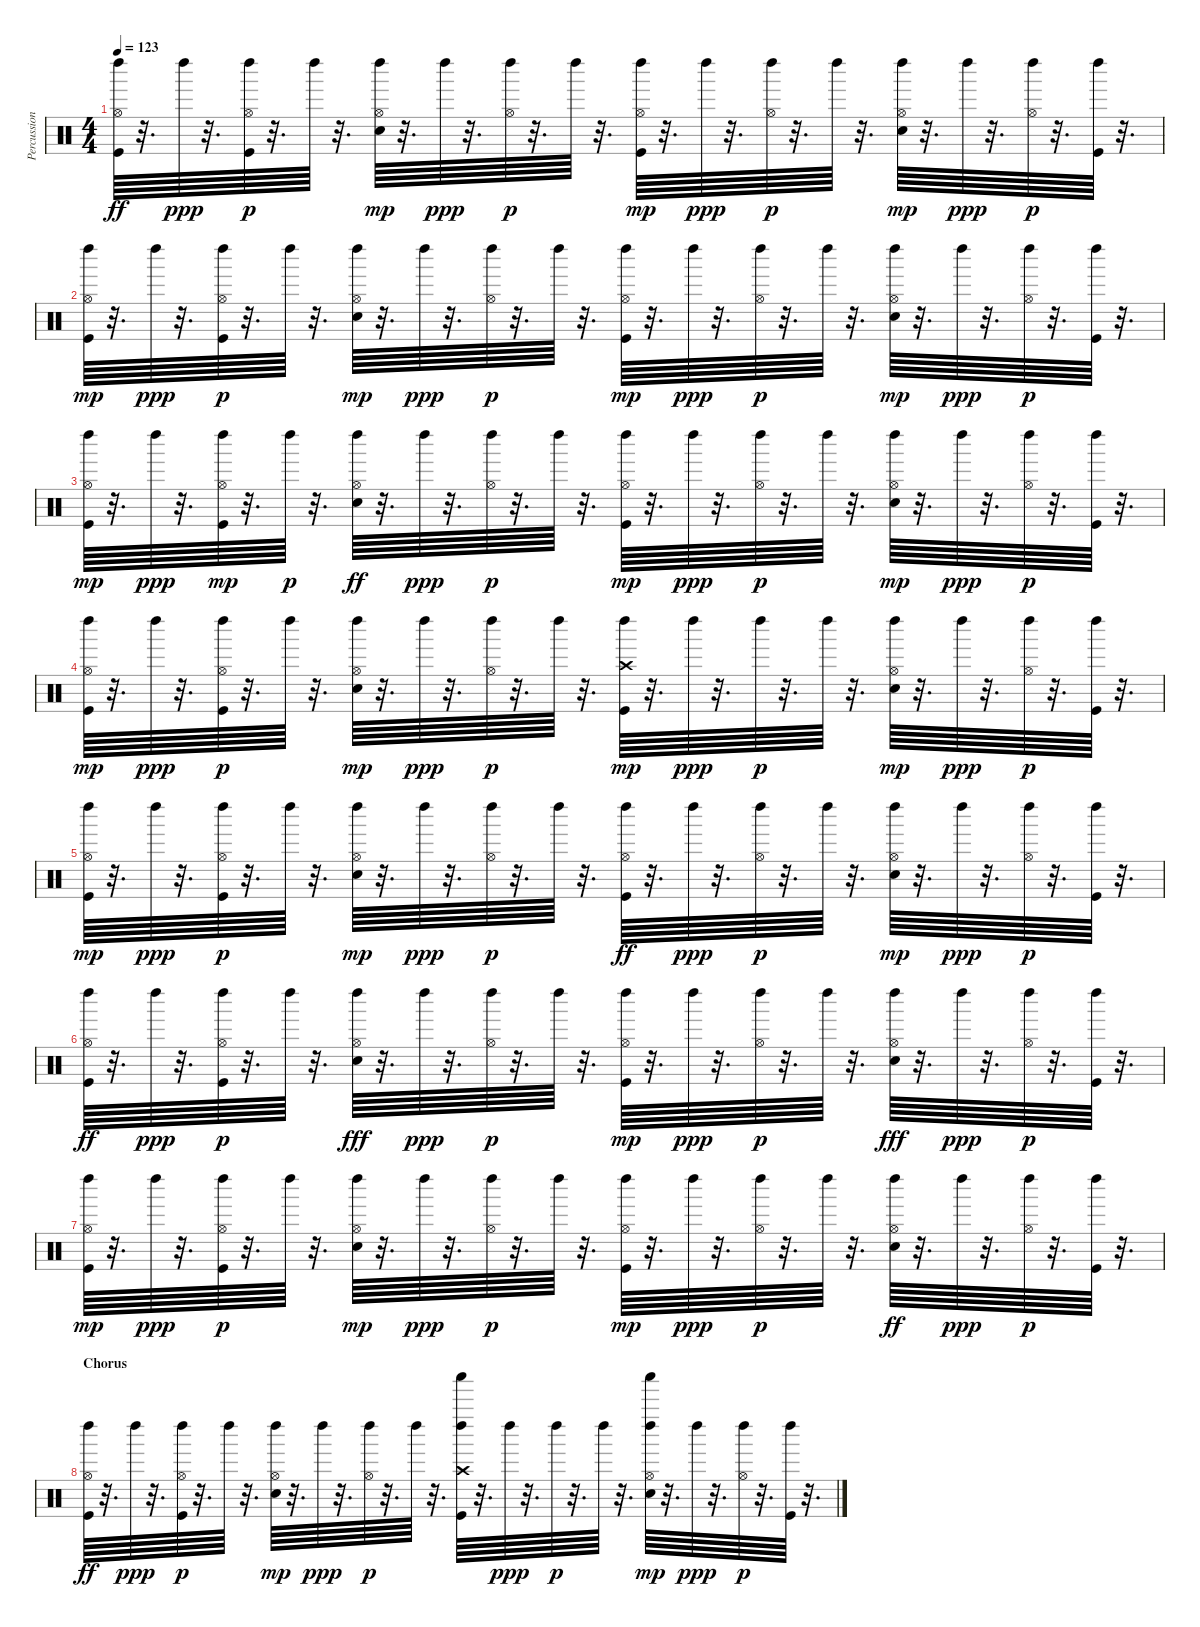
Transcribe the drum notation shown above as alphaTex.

\track ("Percussion" "Percussion") {instrument percussion}
\staff {score}
\articulation defaults
\ts (4 4)
\tempo 123
\clef neutral
\ks c
("Hi-Hat (open)" "Left Maraca (hit)" "Kick (hit)").64{dy ff} r.32{d} "Left Maraca (hit)".64{dy ppp} r.32{d} ("Kick (hit)" "Hi-Hat (open)" "Left Maraca (hit)").64{dy p} r.32{d} "Left Maraca (hit)".64 r.32{d} ("Electric Snare (hit)" "Hi-Hat (open)" "Left Maraca (hit)").64{dy mp} r.32{d} "Left Maraca (hit)".64{dy ppp} r.32{d} ("Hi-Hat (open)" "Left Maraca (hit)").64{dy p} r.32{d} "Left Maraca (hit)".64 r.32{d} ("Kick (hit)" "Hi-Hat (open)" "Left Maraca (hit)").64{dy mp} r.32{d} "Left Maraca (hit)".64{dy ppp} r.32{d} ("Hi-Hat (open)" "Left Maraca (hit)").64{dy p} r.32{d} "Left Maraca (hit)".64 r.32{d} ("Electric Snare (hit)" "Hi-Hat (open)" "Left Maraca (hit)").64{dy mp} r.32{d} "Left Maraca (hit)".64{dy ppp} r.32{d} ("Hi-Hat (open)" "Left Maraca (hit)").64{dy p} r.32{d} ("Kick (hit)" "Left Maraca (hit)").64 r.32{d} |
("Kick (hit)" "Hi-Hat (open)" "Left Maraca (hit)").64{dy mp} r.32{d} "Left Maraca (hit)".64{dy ppp} r.32{d} ("Left Maraca (hit)" "Kick (hit)" "Hi-Hat (open)").64{dy p} r.32{d} "Left Maraca (hit)".64 r.32{d} ("Electric Snare (hit)" "Hi-Hat (open)" "Left Maraca (hit)").64{dy mp} r.32{d} "Left Maraca (hit)".64{dy ppp} r.32{d} ("Hi-Hat (open)" "Left Maraca (hit)").64{dy p} r.32{d} "Left Maraca (hit)".64 r.32{d} ("Kick (hit)" "Hi-Hat (open)" "Left Maraca (hit)").64{dy mp} r.32{d} "Left Maraca (hit)".64{dy ppp} r.32{d} ("Hi-Hat (open)" "Left Maraca (hit)").64{dy p} r.32{d} "Left Maraca (hit)".64 r.32{d} ("Electric Snare (hit)" "Hi-Hat (open)" "Left Maraca (hit)").64{dy mp} r.32{d} "Left Maraca (hit)".64{dy ppp} r.32{d} ("Hi-Hat (open)" "Left Maraca (hit)").64{dy p} r.32{d} ("Kick (hit)" "Left Maraca (hit)").64 r.32{d} |
("Kick (hit)" "Hi-Hat (open)" "Left Maraca (hit)").64{dy mp} r.32{d} "Left Maraca (hit)".64{dy ppp} r.32{d} ("Hi-Hat (open)" "Left Maraca (hit)" "Kick (hit)").64{dy mp} r.32{d} "Left Maraca (hit)".64{dy p} r.32{d} ("Hi-Hat (open)" "Left Maraca (hit)" "Electric Snare (hit)").64{dy ff} r.32{d} "Left Maraca (hit)".64{dy ppp} r.32{d} ("Hi-Hat (open)" "Left Maraca (hit)").64{dy p} r.32{d} "Left Maraca (hit)".64 r.32{d} ("Kick (hit)" "Hi-Hat (open)" "Left Maraca (hit)").64{dy mp} r.32{d} "Left Maraca (hit)".64{dy ppp} r.32{d} ("Hi-Hat (open)" "Left Maraca (hit)").64{dy p} r.32{d} "Left Maraca (hit)".64 r.32{d} ("Electric Snare (hit)" "Hi-Hat (open)" "Left Maraca (hit)").64{dy mp} r.32{d} "Left Maraca (hit)".64{dy ppp} r.32{d} ("Hi-Hat (open)" "Left Maraca (hit)").64{dy p} r.32{d} ("Kick (hit)" "Left Maraca (hit)").64 r.32{d} |
("Kick (hit)" "Hi-Hat (open)" "Left Maraca (hit)").64{dy mp} r.32{d} "Left Maraca (hit)".64{dy ppp} r.32{d} ("Kick (hit)" "Hi-Hat (open)" "Left Maraca (hit)").64{dy p} r.32{d} "Left Maraca (hit)".64 r.32{d} ("Electric Snare (hit)" "Hi-Hat (open)" "Left Maraca (hit)").64{dy mp} r.32{d} "Left Maraca (hit)".64{dy ppp} r.32{d} ("Hi-Hat (open)" "Left Maraca (hit)").64{dy p} r.32{d} "Left Maraca (hit)".64 r.32{d} ("Kick (hit)" "Crash high (hit)" "Left Maraca (hit)").64{dy mp} r.32{d} "Left Maraca (hit)".64{dy ppp} r.32{d} "Left Maraca (hit)".64{dy p} r.32{d} "Left Maraca (hit)".64 r.32{d} ("Electric Snare (hit)" "Hi-Hat (open)" "Left Maraca (hit)").64{dy mp} r.32{d} "Left Maraca (hit)".64{dy ppp} r.32{d} ("Hi-Hat (open)" "Left Maraca (hit)").64{dy p} r.32{d} ("Kick (hit)" "Left Maraca (hit)").64 r.32{d} |
("Kick (hit)" "Hi-Hat (open)" "Left Maraca (hit)").64{dy mp} r.32{d} "Left Maraca (hit)".64{dy ppp} r.32{d} ("Kick (hit)" "Hi-Hat (open)" "Left Maraca (hit)").64{dy p} r.32{d} "Left Maraca (hit)".64 r.32{d} ("Electric Snare (hit)" "Hi-Hat (open)" "Left Maraca (hit)").64{dy mp} r.32{d} "Left Maraca (hit)".64{dy ppp} r.32{d} ("Hi-Hat (open)" "Left Maraca (hit)").64{dy p} r.32{d} "Left Maraca (hit)".64 r.32{d} ("Hi-Hat (open)" "Left Maraca (hit)" "Kick (hit)").64{dy ff} r.32{d} "Left Maraca (hit)".64{dy ppp} r.32{d} ("Hi-Hat (open)" "Left Maraca (hit)").64{dy p} r.32{d} "Left Maraca (hit)".64 r.32{d} ("Electric Snare (hit)" "Hi-Hat (open)" "Left Maraca (hit)").64{dy mp} r.32{d} "Left Maraca (hit)".64{dy ppp} r.32{d} ("Hi-Hat (open)" "Left Maraca (hit)").64{dy p} r.32{d} ("Kick (hit)" "Left Maraca (hit)").64 r.32{d} |
("Hi-Hat (open)" "Left Maraca (hit)" "Kick (hit)").64{dy ff} r.32{d} "Left Maraca (hit)".64{dy ppp} r.32{d} ("Kick (hit)" "Hi-Hat (open)" "Left Maraca (hit)").64{dy p} r.32{d} "Left Maraca (hit)".64 r.32{d} ("Hi-Hat (open)" "Left Maraca (hit)" "Electric Snare (hit)").64{dy fff} r.32{d} "Left Maraca (hit)".64{dy ppp} r.32{d} ("Hi-Hat (open)" "Left Maraca (hit)").64{dy p} r.32{d} "Left Maraca (hit)".64 r.32{d} ("Kick (hit)" "Hi-Hat (open)" "Left Maraca (hit)").64{dy mp} r.32{d} "Left Maraca (hit)".64{dy ppp} r.32{d} ("Hi-Hat (open)" "Left Maraca (hit)").64{dy p} r.32{d} "Left Maraca (hit)".64 r.32{d} ("Hi-Hat (open)" "Left Maraca (hit)" "Electric Snare (hit)").64{dy fff} r.32{d} "Left Maraca (hit)".64{dy ppp} r.32{d} ("Hi-Hat (open)" "Left Maraca (hit)").64{dy p} r.32{d} ("Kick (hit)" "Left Maraca (hit)").64 r.32{d} |
("Kick (hit)" "Hi-Hat (open)" "Left Maraca (hit)").64{dy mp} r.32{d} "Left Maraca (hit)".64{dy ppp} r.32{d} ("Kick (hit)" "Hi-Hat (open)" "Left Maraca (hit)").64{dy p} r.32{d} "Left Maraca (hit)".64 r.32{d} ("Electric Snare (hit)" "Hi-Hat (open)" "Left Maraca (hit)").64{dy mp} r.32{d} "Left Maraca (hit)".64{dy ppp} r.32{d} ("Hi-Hat (open)" "Left Maraca (hit)").64{dy p} r.32{d} "Left Maraca (hit)".64 r.32{d} ("Kick (hit)" "Hi-Hat (open)" "Left Maraca (hit)").64{dy mp} r.32{d} "Left Maraca (hit)".64{dy ppp} r.32{d} ("Hi-Hat (open)" "Left Maraca (hit)").64{dy p} r.32{d} "Left Maraca (hit)".64 r.32{d} ("Hi-Hat (open)" "Left Maraca (hit)" "Electric Snare (hit)").64{dy ff} r.32{d} "Left Maraca (hit)".64{dy ppp} r.32{d} ("Hi-Hat (open)" "Left Maraca (hit)").64{dy p} r.32{d} ("Kick (hit)" "Left Maraca (hit)").64 r.32{d} |
\section ("" "Chorus")
("Hi-Hat (open)" "Left Maraca (hit)" "Kick (hit)").64{dy ff} r.32{d} "Left Maraca (hit)".64{dy ppp} r.32{d} ("Kick (hit)" "Hi-Hat (open)" "Left Maraca (hit)").64{dy p} r.32{d} "Left Maraca (hit)".64 r.32{d} ("Electric Snare (hit)" "Hi-Hat (open)" "Left Maraca (hit)").64{dy mp} r.32{d} "Left Maraca (hit)".64{dy ppp} r.32{d} ("Hi-Hat (open)" "Left Maraca (hit)").64{dy p} r.32{d} "Left Maraca (hit)".64 r.32{d} ("Shaker (hit)" "Kick (hit)" "Left Maraca (hit)" "Crash high (hit)").64 r.32{d} "Left Maraca (hit)".64{dy ppp} r.32{d} "Left Maraca (hit)".64{dy p} r.32{d} "Left Maraca (hit)".64 r.32{d} ("Hi-Hat (open)" "Left Maraca (hit)" "Electric Snare (hit)" "Shaker (hit)").64{dy mp} r.32{d} "Left Maraca (hit)".64{dy ppp} r.32{d} ("Hi-Hat (open)" "Left Maraca (hit)").64{dy p} r.32{d} ("Kick (hit)" "Left Maraca (hit)").64 r.32{d}
